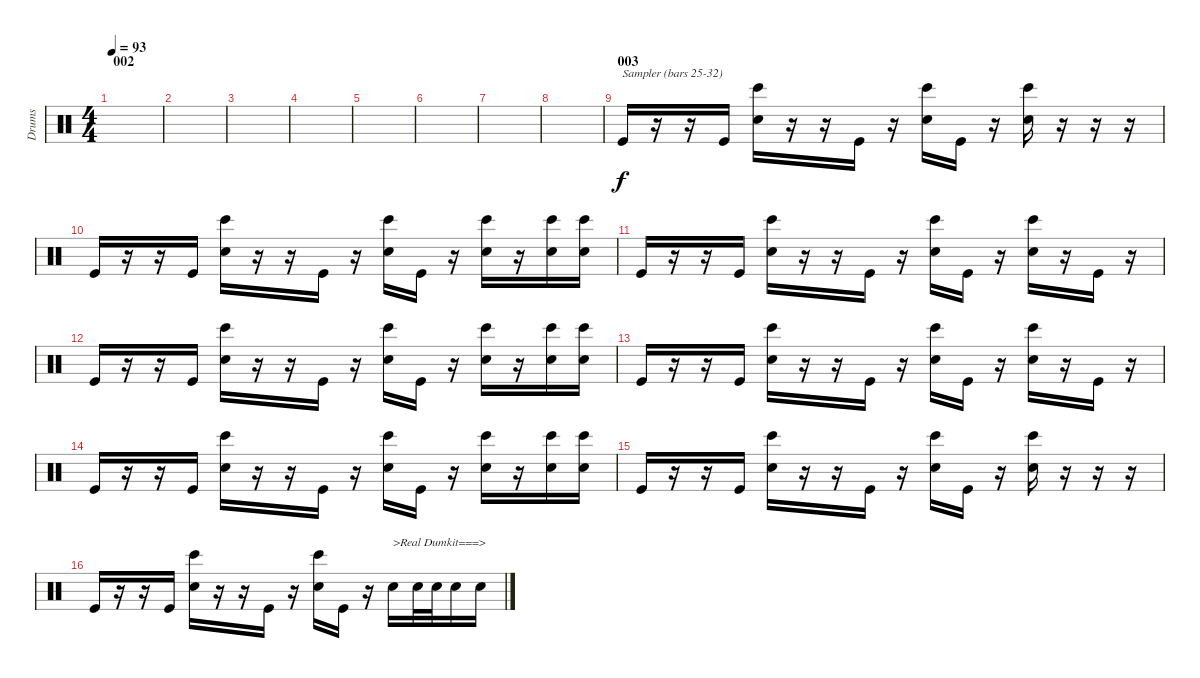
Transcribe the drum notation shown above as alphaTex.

\track ("Drums" "Drums") {instrument percussion}
\staff {score}
\articulation defaults
\ts (4 4)
\section ("" "002")
\tempo 93
\clef neutral
\ks c
|
|
|
|
|
|
|
|
\section ("" "003")
"Kick (hit)".16{txt "Sampler (bars 25-32)"} r.16 r.16 "Kick (hit)".16 ("Hand Clap (hit)" "Bongo High (hit)").16 r.16 r.16 "Kick (hit)".16 r.16 ("Hand Clap (hit)" "Bongo High (hit)").16 "Kick (hit)".16 r.16 ("Hand Clap (hit)" "Bongo High (hit)").16 r.16 r.16 r.16 |
"Kick (hit)".16 r.16 r.16 "Kick (hit)".16 ("Hand Clap (hit)" "Bongo High (hit)").16 r.16 r.16 "Kick (hit)".16 r.16 ("Hand Clap (hit)" "Bongo High (hit)").16 "Kick (hit)".16 r.16 ("Hand Clap (hit)" "Bongo High (hit)").16 r.16 ("Hand Clap (hit)" "Bongo High (hit)").16 ("Hand Clap (hit)" "Bongo High (hit)").16 |
"Kick (hit)".16 r.16 r.16 "Kick (hit)".16 ("Hand Clap (hit)" "Bongo High (hit)").16 r.16 r.16 "Kick (hit)".16 r.16 ("Hand Clap (hit)" "Bongo High (hit)").16 "Kick (hit)".16 r.16 ("Hand Clap (hit)" "Bongo High (hit)").16 r.16 "Kick (hit)".16 r.16 |
"Kick (hit)".16 r.16 r.16 "Kick (hit)".16 ("Hand Clap (hit)" "Bongo High (hit)").16 r.16 r.16 "Kick (hit)".16 r.16 ("Hand Clap (hit)" "Bongo High (hit)").16 "Kick (hit)".16 r.16 ("Hand Clap (hit)" "Bongo High (hit)").16 r.16 ("Hand Clap (hit)" "Bongo High (hit)").16 ("Hand Clap (hit)" "Bongo High (hit)").16 |
"Kick (hit)".16 r.16 r.16 "Kick (hit)".16 ("Hand Clap (hit)" "Bongo High (hit)").16 r.16 r.16 "Kick (hit)".16 r.16 ("Hand Clap (hit)" "Bongo High (hit)").16 "Kick (hit)".16 r.16 ("Hand Clap (hit)" "Bongo High (hit)").16 r.16 "Kick (hit)".16 r.16 |
"Kick (hit)".16 r.16 r.16 "Kick (hit)".16 ("Hand Clap (hit)" "Bongo High (hit)").16 r.16 r.16 "Kick (hit)".16 r.16 ("Hand Clap (hit)" "Bongo High (hit)").16 "Kick (hit)".16 r.16 ("Hand Clap (hit)" "Bongo High (hit)").16 r.16 ("Hand Clap (hit)" "Bongo High (hit)").16 ("Hand Clap (hit)" "Bongo High (hit)").16 |
"Kick (hit)".16 r.16 r.16 "Kick (hit)".16 ("Hand Clap (hit)" "Bongo High (hit)").16 r.16 r.16 "Kick (hit)".16 r.16 ("Hand Clap (hit)" "Bongo High (hit)").16 "Kick (hit)".16 r.16 ("Hand Clap (hit)" "Bongo High (hit)").16 r.16 r.16 r.16 |
"Kick (hit)".16 r.16 r.16 "Kick (hit)".16 ("Hand Clap (hit)" "Bongo High (hit)").16 r.16 r.16 "Kick (hit)".16 r.16 ("Hand Clap (hit)" "Bongo High (hit)").16 "Kick (hit)".16 r.16 "Electric Snare (hit)".16{txt ">Real Dumkit===>"} "Electric Snare (hit)".32 "Electric Snare (hit)".32 "Electric Snare (hit)".16 "Electric Snare (hit)".16
